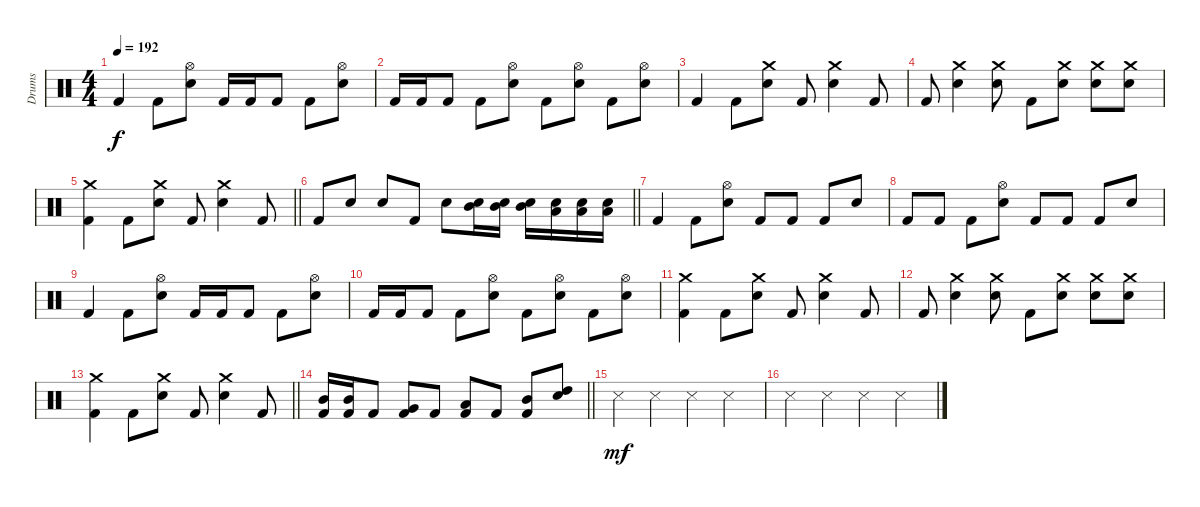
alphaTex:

\track ("Drums" "Drums") {instrument percussion}
\staff {score}
\articulation defaults
\ts (4 4)
\tempo 192
\clef neutral
\ks c "Kick (hit) 2".4{dy f} "Kick (hit) 2".8
("Electric Snare (hit)" "Hi-Hat (open)").8 "Kick (hit) 2".16 "Kick (hit) 2".16 "Kick (hit) 2".8 "Kick (hit) 2".8 ("Electric Snare (hit)" "Hi-Hat (open)").8 |
"Kick (hit) 2".16 "Kick (hit) 2".16 "Kick (hit) 2".8 "Kick (hit) 2".8 ("Hi-Hat (open)" "Electric Snare (hit)").8 "Kick (hit) 2".8 ("Hi-Hat (open)" "Electric Snare (hit)").8 "Kick (hit) 2".8 ("Hi-Hat (open)" "Electric Snare (hit)").8 |
"Kick (hit) 2".4 "Kick (hit) 2".8 ("Electric Snare (hit)" "Crash medium (hit)").8 "Kick (hit) 2".8 ("Electric Snare (hit)" "Crash medium (hit)").4 "Kick (hit) 2".8 |
"Kick (hit) 2".8 ("Electric Snare (hit)" "Crash medium (hit)").4 ("Electric Snare (hit)" "Crash medium (hit)").8 "Kick (hit) 2".8 ("Electric Snare (hit)" "Crash medium (hit)").8 ("Electric Snare (hit)" "Crash medium (hit)").8 ("Electric Snare (hit)" "Crash medium (hit)").8 |
\barLineRight lightlight
("Kick (hit) 2" "Crash medium (hit)").4 "Kick (hit) 2".8 ("Electric Snare (hit)" "Crash medium (hit)").8 "Kick (hit) 2".8 ("Electric Snare (hit)" "Crash medium (hit)").4 "Kick (hit) 2".8 |
\barLineRight lightlight "Kick (hit) 2".8 "Electric Snare (hit)".8 "Electric Snare (hit)".8 "Kick (hit) 2".8 "Electric Snare (hit)".8
("Electric Snare (hit)" "Mid Tom (hit)").16 ("Electric Snare (hit)" "Mid Tom (hit)").16 ("Electric Snare (hit)" "Mid Tom (hit)").16 ("Electric Snare (hit)" "Low Tom (hit)").16 ("Electric Snare (hit)" "Low Tom (hit)").16 ("Electric Snare (hit)" "Low Tom (hit)").16 |
"Kick (hit) 2".4 "Kick (hit) 2".8 ("Electric Snare (hit)" "Hi-Hat (open)").8 "Kick (hit) 2".8 "Kick (hit) 2".8 "Kick (hit) 2".8 "Electric Snare (hit)".8 |
"Kick (hit) 2".8 "Kick (hit) 2".8 "Kick (hit) 2".8 ("Electric Snare (hit)" "Hi-Hat (open)").8 "Kick (hit) 2".8 "Kick (hit) 2".8 "Kick (hit) 2".8 "Electric Snare (hit)".8 |
"Kick (hit) 2".4 "Kick (hit) 2".8 ("Electric Snare (hit)" "Hi-Hat (open)").8 "Kick (hit) 2".16 "Kick (hit) 2".16 "Kick (hit) 2".8 "Kick (hit) 2".8 ("Electric Snare (hit)" "Hi-Hat (open)").8 |
"Kick (hit) 2".16 "Kick (hit) 2".16 "Kick (hit) 2".8 "Kick (hit) 2".8 ("Hi-Hat (open)" "Electric Snare (hit)").8 "Kick (hit) 2".8 ("Hi-Hat (open)" "Electric Snare (hit)").8 "Kick (hit) 2".8 ("Hi-Hat (open)" "Electric Snare (hit)").8 |
("Kick (hit) 2" "Crash medium (hit)").4 "Kick (hit) 2".8 ("Electric Snare (hit)" "Crash medium (hit)").8 "Kick (hit) 2".8 ("Electric Snare (hit)" "Crash medium (hit)").4 "Kick (hit) 2".8 |
"Kick (hit) 2".8 ("Electric Snare (hit)" "Crash medium (hit)").4 ("Electric Snare (hit)" "Crash medium (hit)").8 "Kick (hit) 2".8 ("Electric Snare (hit)" "Crash medium (hit)").8 ("Electric Snare (hit)" "Crash medium (hit)").8 ("Electric Snare (hit)" "Crash medium (hit)").8 |
\barLineRight lightlight
("Kick (hit) 2" "Crash medium (hit)").4 "Kick (hit) 2".8 ("Electric Snare (hit)" "Crash medium (hit)").8 "Kick (hit) 2".8 ("Electric Snare (hit)" "Crash medium (hit)").4 "Kick (hit) 2".8 |
\barLineRight lightlight
("Mid Tom (hit)" "Kick (hit) 2").16 ("Mid Tom (hit)" "Kick (hit) 2").16 "Kick (hit) 2".8 ("Very Low Tom (hit)" "Kick (hit) 2").8 "Kick (hit) 2".8 ("Low Floor Tom (hit)" "Kick (hit) 2").8 "Kick (hit) 2".8 ("Mid Tom (hit)" "Kick (hit) 2").8 ("High Tom (hit)" "Electric Snare (hit)").8 |
"Snare (side stick) 3".4{dy mf} "Snare (side stick) 3".4 "Snare (side stick) 3".4 "Snare (side stick) 3".4 |
"Snare (side stick) 3".4 "Snare (side stick) 3".4 "Snare (side stick) 3".4 "Snare (side stick) 3".4
